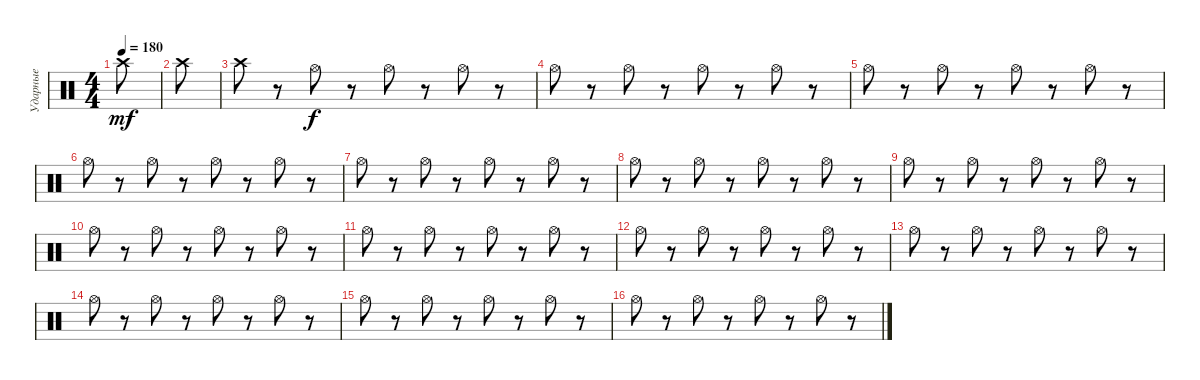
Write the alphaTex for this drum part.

\track ("Ударные" "Ударные") {instrument percussion}
\staff {score}
\articulation defaults
\ts (4 4)
\tempo 180
\clef neutral
\ks c "Crash high (hit)".8{dy mf}
|
"Crash high (hit)".8 |
"Crash high (hit)".8 r.8 "Hi-Hat (open)".8{dy f} r.8 "Hi-Hat (open)".8 r.8 "Hi-Hat (open)".8 r.8 |
"Hi-Hat (open)".8 r.8 "Hi-Hat (open)".8 r.8 "Hi-Hat (open)".8 r.8 "Hi-Hat (open)".8 r.8 |
"Hi-Hat (open)".8 r.8 "Hi-Hat (open)".8 r.8 "Hi-Hat (open)".8 r.8 "Hi-Hat (open)".8 r.8 |
"Hi-Hat (open)".8 r.8 "Hi-Hat (open)".8 r.8 "Hi-Hat (open)".8 r.8 "Hi-Hat (open)".8 r.8 |
"Hi-Hat (open)".8 r.8 "Hi-Hat (open)".8 r.8 "Hi-Hat (open)".8 r.8 "Hi-Hat (open)".8 r.8 |
"Hi-Hat (open)".8 r.8 "Hi-Hat (open)".8 r.8 "Hi-Hat (open)".8 r.8 "Hi-Hat (open)".8 r.8 |
"Hi-Hat (open)".8 r.8 "Hi-Hat (open)".8 r.8 "Hi-Hat (open)".8 r.8 "Hi-Hat (open)".8 r.8 |
"Hi-Hat (open)".8 r.8 "Hi-Hat (open)".8 r.8 "Hi-Hat (open)".8 r.8 "Hi-Hat (open)".8 r.8 |
"Hi-Hat (open)".8 r.8 "Hi-Hat (open)".8 r.8 "Hi-Hat (open)".8 r.8 "Hi-Hat (open)".8 r.8 |
"Hi-Hat (open)".8 r.8 "Hi-Hat (open)".8 r.8 "Hi-Hat (open)".8 r.8 "Hi-Hat (open)".8 r.8 |
"Hi-Hat (open)".8 r.8 "Hi-Hat (open)".8 r.8 "Hi-Hat (open)".8 r.8 "Hi-Hat (open)".8 r.8 |
"Hi-Hat (open)".8 r.8 "Hi-Hat (open)".8 r.8 "Hi-Hat (open)".8 r.8 "Hi-Hat (open)".8 r.8 |
"Hi-Hat (open)".8 r.8 "Hi-Hat (open)".8 r.8 "Hi-Hat (open)".8 r.8 "Hi-Hat (open)".8 r.8 |
"Hi-Hat (open)".8 r.8 "Hi-Hat (open)".8 r.8 "Hi-Hat (open)".8 r.8 "Hi-Hat (open)".8 r.8
